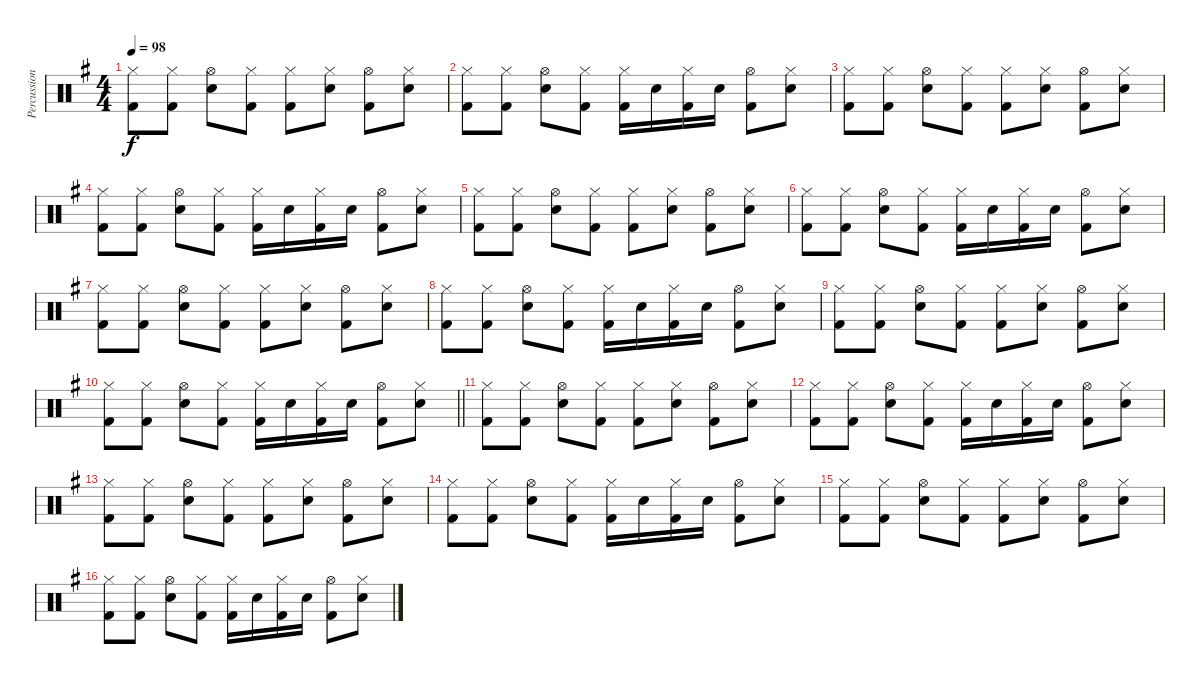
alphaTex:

\track ("Percussion" "Percussion") {instrument percussion}
\staff {score}
\articulation defaults
\ts (4 4)
\tempo 98
\clef neutral
\ks eminor
("Hi-Hat (closed)" "Kick (hit) 2").8{dy f} ("Hi-Hat (closed)" "Kick (hit) 2").8 ("Hi-Hat (open)" "Electric Snare (hit)").8 ("Hi-Hat (closed)" "Kick (hit) 2").8 ("Hi-Hat (closed)" "Kick (hit) 2").8 ("Hi-Hat (closed)" "Electric Snare (hit)").8 ("Hi-Hat (open)" "Kick (hit) 2").8 ("Hi-Hat (closed)" "Electric Snare (hit)").8 |
("Hi-Hat (closed)" "Kick (hit) 2").8 ("Hi-Hat (closed)" "Kick (hit) 2").8 ("Hi-Hat (open)" "Electric Snare (hit)").8 ("Hi-Hat (closed)" "Kick (hit) 2").8 ("Hi-Hat (closed)" "Kick (hit) 2").16 "Electric Snare (hit)".16 ("Hi-Hat (closed)" "Kick (hit) 2").16 "Electric Snare (hit)".16 ("Hi-Hat (open)" "Kick (hit) 2").8 ("Hi-Hat (closed)" "Electric Snare (hit)").8 |
("Hi-Hat (closed)" "Kick (hit) 2").8 ("Hi-Hat (closed)" "Kick (hit) 2").8 ("Hi-Hat (open)" "Electric Snare (hit)").8 ("Hi-Hat (closed)" "Kick (hit) 2").8 ("Hi-Hat (closed)" "Kick (hit) 2").8 ("Hi-Hat (closed)" "Electric Snare (hit)").8 ("Hi-Hat (open)" "Kick (hit) 2").8 ("Hi-Hat (closed)" "Electric Snare (hit)").8 |
("Hi-Hat (closed)" "Kick (hit) 2").8 ("Hi-Hat (closed)" "Kick (hit) 2").8 ("Hi-Hat (open)" "Electric Snare (hit)").8 ("Hi-Hat (closed)" "Kick (hit) 2").8 ("Hi-Hat (closed)" "Kick (hit) 2").16 "Electric Snare (hit)".16 ("Hi-Hat (closed)" "Kick (hit) 2").16 "Electric Snare (hit)".16 ("Hi-Hat (open)" "Kick (hit) 2").8 ("Hi-Hat (closed)" "Electric Snare (hit)").8 |
("Hi-Hat (closed)" "Kick (hit) 2").8 ("Hi-Hat (closed)" "Kick (hit) 2").8 ("Hi-Hat (open)" "Electric Snare (hit)").8 ("Hi-Hat (closed)" "Kick (hit) 2").8 ("Hi-Hat (closed)" "Kick (hit) 2").8 ("Hi-Hat (closed)" "Electric Snare (hit)").8 ("Hi-Hat (open)" "Kick (hit) 2").8 ("Hi-Hat (closed)" "Electric Snare (hit)").8 |
("Hi-Hat (closed)" "Kick (hit) 2").8 ("Hi-Hat (closed)" "Kick (hit) 2").8 ("Hi-Hat (open)" "Electric Snare (hit)").8 ("Hi-Hat (closed)" "Kick (hit) 2").8 ("Hi-Hat (closed)" "Kick (hit) 2").16 "Electric Snare (hit)".16 ("Hi-Hat (closed)" "Kick (hit) 2").16 "Electric Snare (hit)".16 ("Hi-Hat (open)" "Kick (hit) 2").8 ("Hi-Hat (closed)" "Electric Snare (hit)").8 |
("Hi-Hat (closed)" "Kick (hit) 2").8 ("Hi-Hat (closed)" "Kick (hit) 2").8 ("Hi-Hat (open)" "Electric Snare (hit)").8 ("Hi-Hat (closed)" "Kick (hit) 2").8 ("Hi-Hat (closed)" "Kick (hit) 2").8 ("Hi-Hat (closed)" "Electric Snare (hit)").8 ("Hi-Hat (open)" "Kick (hit) 2").8 ("Hi-Hat (closed)" "Electric Snare (hit)").8 |
("Hi-Hat (closed)" "Kick (hit) 2").8 ("Hi-Hat (closed)" "Kick (hit) 2").8 ("Hi-Hat (open)" "Electric Snare (hit)").8 ("Hi-Hat (closed)" "Kick (hit) 2").8 ("Hi-Hat (closed)" "Kick (hit) 2").16 "Electric Snare (hit)".16 ("Hi-Hat (closed)" "Kick (hit) 2").16 "Electric Snare (hit)".16 ("Hi-Hat (open)" "Kick (hit) 2").8 ("Hi-Hat (closed)" "Electric Snare (hit)").8 |
("Hi-Hat (closed)" "Kick (hit) 2").8 ("Hi-Hat (closed)" "Kick (hit) 2").8 ("Hi-Hat (open)" "Electric Snare (hit)").8 ("Hi-Hat (closed)" "Kick (hit) 2").8 ("Hi-Hat (closed)" "Kick (hit) 2").8 ("Hi-Hat (closed)" "Electric Snare (hit)").8 ("Hi-Hat (open)" "Kick (hit) 2").8 ("Hi-Hat (closed)" "Electric Snare (hit)").8 |
\barLineRight lightlight
("Hi-Hat (closed)" "Kick (hit) 2").8 ("Hi-Hat (closed)" "Kick (hit) 2").8 ("Hi-Hat (open)" "Electric Snare (hit)").8 ("Hi-Hat (closed)" "Kick (hit) 2").8 ("Hi-Hat (closed)" "Kick (hit) 2").16 "Electric Snare (hit)".16 ("Hi-Hat (closed)" "Kick (hit) 2").16 "Electric Snare (hit)".16 ("Hi-Hat (open)" "Kick (hit) 2").8 ("Hi-Hat (closed)" "Electric Snare (hit)").8 |
("Hi-Hat (closed)" "Kick (hit) 2").8 ("Hi-Hat (closed)" "Kick (hit) 2").8 ("Hi-Hat (open)" "Electric Snare (hit)").8 ("Hi-Hat (closed)" "Kick (hit) 2").8 ("Hi-Hat (closed)" "Kick (hit) 2").8 ("Hi-Hat (closed)" "Electric Snare (hit)").8 ("Hi-Hat (open)" "Kick (hit) 2").8 ("Hi-Hat (closed)" "Electric Snare (hit)").8 |
("Hi-Hat (closed)" "Kick (hit) 2").8 ("Hi-Hat (closed)" "Kick (hit) 2").8 ("Hi-Hat (open)" "Electric Snare (hit)").8 ("Hi-Hat (closed)" "Kick (hit) 2").8 ("Hi-Hat (closed)" "Kick (hit) 2").16 "Electric Snare (hit)".16 ("Hi-Hat (closed)" "Kick (hit) 2").16 "Electric Snare (hit)".16 ("Hi-Hat (open)" "Kick (hit) 2").8 ("Hi-Hat (closed)" "Electric Snare (hit)").8 |
("Hi-Hat (closed)" "Kick (hit) 2").8 ("Hi-Hat (closed)" "Kick (hit) 2").8 ("Hi-Hat (open)" "Electric Snare (hit)").8 ("Hi-Hat (closed)" "Kick (hit) 2").8 ("Hi-Hat (closed)" "Kick (hit) 2").8 ("Hi-Hat (closed)" "Electric Snare (hit)").8 ("Hi-Hat (open)" "Kick (hit) 2").8 ("Hi-Hat (closed)" "Electric Snare (hit)").8 |
("Hi-Hat (closed)" "Kick (hit) 2").8 ("Hi-Hat (closed)" "Kick (hit) 2").8 ("Hi-Hat (open)" "Electric Snare (hit)").8 ("Hi-Hat (closed)" "Kick (hit) 2").8 ("Hi-Hat (closed)" "Kick (hit) 2").16 "Electric Snare (hit)".16 ("Hi-Hat (closed)" "Kick (hit) 2").16 "Electric Snare (hit)".16 ("Hi-Hat (open)" "Kick (hit) 2").8 ("Hi-Hat (closed)" "Electric Snare (hit)").8 |
("Hi-Hat (closed)" "Kick (hit) 2").8 ("Hi-Hat (closed)" "Kick (hit) 2").8 ("Hi-Hat (open)" "Electric Snare (hit)").8 ("Hi-Hat (closed)" "Kick (hit) 2").8 ("Hi-Hat (closed)" "Kick (hit) 2").8 ("Hi-Hat (closed)" "Electric Snare (hit)").8 ("Hi-Hat (open)" "Kick (hit) 2").8 ("Hi-Hat (closed)" "Electric Snare (hit)").8 |
("Hi-Hat (closed)" "Kick (hit) 2").8 ("Hi-Hat (closed)" "Kick (hit) 2").8 ("Hi-Hat (open)" "Electric Snare (hit)").8 ("Hi-Hat (closed)" "Kick (hit) 2").8 ("Hi-Hat (closed)" "Kick (hit) 2").16 "Electric Snare (hit)".16 ("Hi-Hat (closed)" "Kick (hit) 2").16 "Electric Snare (hit)".16 ("Hi-Hat (open)" "Kick (hit) 2").8 ("Hi-Hat (closed)" "Electric Snare (hit)").8
